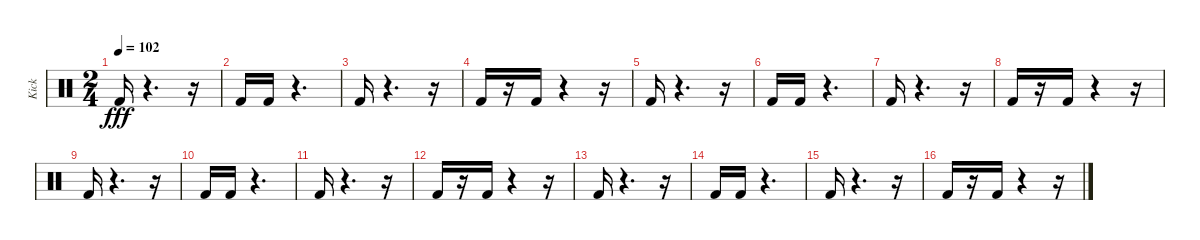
\track ("Kick" "Kick") {instrument percussion}
\staff {score}
\articulation defaults
\ts (2 4)
\tempo 102
\clef neutral
\ks c "Kick (hit) 2".16{dy fff}
r.4{d} r.16 |
"Kick (hit) 2".16 "Kick (hit) 2".16 r.4{d} |
"Kick (hit) 2".16 r.4{d} r.16 |
"Kick (hit) 2".16 r.16 "Kick (hit) 2".16 r.4 r.16 |
"Kick (hit) 2".16 r.4{d} r.16 |
"Kick (hit) 2".16 "Kick (hit) 2".16 r.4{d} |
"Kick (hit) 2".16 r.4{d} r.16 |
"Kick (hit) 2".16 r.16 "Kick (hit) 2".16 r.4 r.16 |
"Kick (hit) 2".16 r.4{d} r.16 |
"Kick (hit) 2".16 "Kick (hit) 2".16 r.4{d} |
"Kick (hit) 2".16 r.4{d} r.16 |
"Kick (hit) 2".16 r.16 "Kick (hit) 2".16 r.4 r.16 |
"Kick (hit) 2".16 r.4{d} r.16 |
"Kick (hit) 2".16 "Kick (hit) 2".16 r.4{d} |
"Kick (hit) 2".16 r.4{d} r.16 |
"Kick (hit) 2".16 r.16 "Kick (hit) 2".16 r.4 r.16
